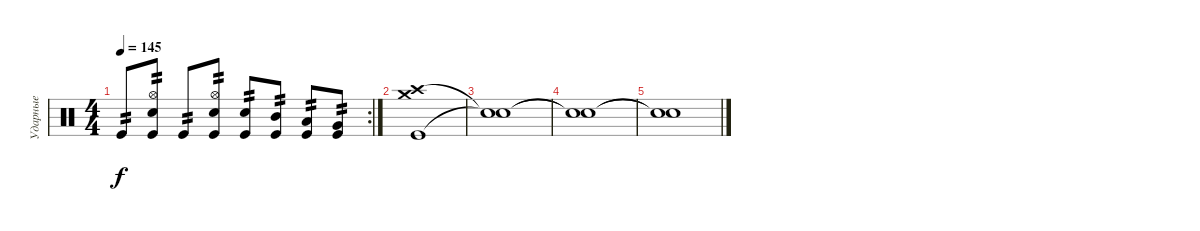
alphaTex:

\track ("Ударные" "Ударные") {instrument percussion}
\staff {score}
\articulation defaults
\rc 2
\ts (4 4)
\tempo 145
\clef neutral
\ks c "Kick (hit)".8{tp 2 dy f}
("Hi-Hat (open)" "Electric Snare (hit)" "Kick (hit)").8{tp 2} "Kick (hit)".8{tp 2} ("Hi-Hat (open)" "Electric Snare (hit)" "Kick (hit)").8{tp 2} ("Electric Snare (hit)" "Kick (hit)").8{tp 2} ("Mid Tom (hit)" "Kick (hit)").8{tp 2} ("Low Tom (hit)" "Kick (hit)").8{tp 2} ("Very Low Tom (hit)" "Kick (hit)").8{tp 2} |
("Crash high (hit)" "Kick (hit)" "Crash medium (hit)").1 |
("Snare (hit)"{t} "Snare (hit)"{t}).1 |
("Snare (hit)"{t} "Snare (hit)"{t}).1 |
("Snare (hit)"{t} "Snare (hit)"{t}).1
